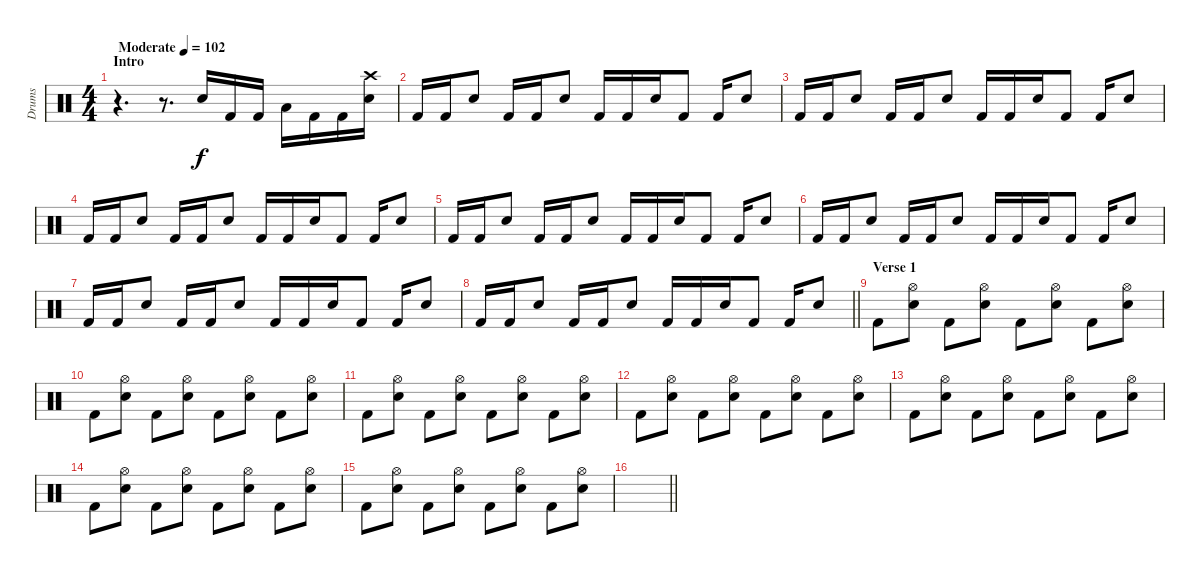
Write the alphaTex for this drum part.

\track ("Drums" "Drums") {instrument percussion}
\staff {score}
\articulation defaults
\ts (4 4)
\section ("" "Intro")
\tempo (102 "Moderate")
\clef neutral
\ks c
r.4{d dy f} r.8{d} "Electric Snare (hit)".16 "Kick (hit) 2".16 "Kick (hit) 2".16 "Low Tom (hit)".16 "Kick (hit) 2".16 "Kick (hit) 2".16 ("Crash high (hit)" "Electric Snare (hit)").16 |
"Kick (hit) 2".16 "Kick (hit) 2".16 "Electric Snare (hit)".8 "Kick (hit) 2".16 "Kick (hit) 2".16 "Electric Snare (hit)".8 "Kick (hit) 2".16 "Kick (hit) 2".16 "Electric Snare (hit)".16 "Kick (hit) 2".8 "Kick (hit) 2".16 "Electric Snare (hit)".8 |
"Kick (hit) 2".16 "Kick (hit) 2".16 "Electric Snare (hit)".8 "Kick (hit) 2".16 "Kick (hit) 2".16 "Electric Snare (hit)".8 "Kick (hit) 2".16 "Kick (hit) 2".16 "Electric Snare (hit)".16 "Kick (hit) 2".8 "Kick (hit) 2".16 "Electric Snare (hit)".8 |
"Kick (hit) 2".16 "Kick (hit) 2".16 "Electric Snare (hit)".8 "Kick (hit) 2".16 "Kick (hit) 2".16 "Electric Snare (hit)".8 "Kick (hit) 2".16 "Kick (hit) 2".16 "Electric Snare (hit)".16 "Kick (hit) 2".8 "Kick (hit) 2".16 "Electric Snare (hit)".8 |
"Kick (hit) 2".16 "Kick (hit) 2".16 "Electric Snare (hit)".8 "Kick (hit) 2".16 "Kick (hit) 2".16 "Electric Snare (hit)".8 "Kick (hit) 2".16 "Kick (hit) 2".16 "Electric Snare (hit)".16 "Kick (hit) 2".8 "Kick (hit) 2".16 "Electric Snare (hit)".8 |
"Kick (hit) 2".16 "Kick (hit) 2".16 "Electric Snare (hit)".8 "Kick (hit) 2".16 "Kick (hit) 2".16 "Electric Snare (hit)".8 "Kick (hit) 2".16 "Kick (hit) 2".16 "Electric Snare (hit)".16 "Kick (hit) 2".8 "Kick (hit) 2".16 "Electric Snare (hit)".8 |
"Kick (hit) 2".16 "Kick (hit) 2".16 "Electric Snare (hit)".8 "Kick (hit) 2".16 "Kick (hit) 2".16 "Electric Snare (hit)".8 "Kick (hit) 2".16 "Kick (hit) 2".16 "Electric Snare (hit)".16 "Kick (hit) 2".8 "Kick (hit) 2".16 "Electric Snare (hit)".8 |
\barLineRight lightlight "Kick (hit) 2".16 "Kick (hit) 2".16 "Electric Snare (hit)".8 "Kick (hit) 2".16 "Kick (hit) 2".16 "Electric Snare (hit)".8 "Kick (hit) 2".16 "Kick (hit) 2".16 "Electric Snare (hit)".16 "Kick (hit) 2".8 "Kick (hit) 2".16 "Electric Snare (hit)".8
|
\section ("" "Verse 1")
"Kick (hit) 2".8 ("Hi-Hat (open)" "Electric Snare (hit)").8 "Kick (hit) 2".8 ("Hi-Hat (open)" "Electric Snare (hit)").8 "Kick (hit) 2".8 ("Hi-Hat (open)" "Electric Snare (hit)").8 "Kick (hit) 2".8 ("Hi-Hat (open)" "Electric Snare (hit)").8 |
"Kick (hit) 2".8 ("Hi-Hat (open)" "Electric Snare (hit)").8 "Kick (hit) 2".8 ("Hi-Hat (open)" "Electric Snare (hit)").8 "Kick (hit) 2".8 ("Hi-Hat (open)" "Electric Snare (hit)").8 "Kick (hit) 2".8 ("Hi-Hat (open)" "Electric Snare (hit)").8 |
"Kick (hit) 2".8 ("Hi-Hat (open)" "Electric Snare (hit)").8 "Kick (hit) 2".8 ("Hi-Hat (open)" "Electric Snare (hit)").8 "Kick (hit) 2".8 ("Hi-Hat (open)" "Electric Snare (hit)").8 "Kick (hit) 2".8 ("Hi-Hat (open)" "Electric Snare (hit)").8 |
"Kick (hit) 2".8 ("Hi-Hat (open)" "Electric Snare (hit)").8 "Kick (hit) 2".8 ("Hi-Hat (open)" "Electric Snare (hit)").8 "Kick (hit) 2".8 ("Hi-Hat (open)" "Electric Snare (hit)").8 "Kick (hit) 2".8 ("Hi-Hat (open)" "Electric Snare (hit)").8 |
"Kick (hit) 2".8 ("Hi-Hat (open)" "Electric Snare (hit)").8 "Kick (hit) 2".8 ("Hi-Hat (open)" "Electric Snare (hit)").8 "Kick (hit) 2".8 ("Hi-Hat (open)" "Electric Snare (hit)").8 "Kick (hit) 2".8 ("Hi-Hat (open)" "Electric Snare (hit)").8 |
"Kick (hit) 2".8 ("Hi-Hat (open)" "Electric Snare (hit)").8 "Kick (hit) 2".8 ("Hi-Hat (open)" "Electric Snare (hit)").8 "Kick (hit) 2".8 ("Hi-Hat (open)" "Electric Snare (hit)").8 "Kick (hit) 2".8 ("Hi-Hat (open)" "Electric Snare (hit)").8 |
"Kick (hit) 2".8 ("Hi-Hat (open)" "Electric Snare (hit)").8 "Kick (hit) 2".8 ("Hi-Hat (open)" "Electric Snare (hit)").8 "Kick (hit) 2".8 ("Hi-Hat (open)" "Electric Snare (hit)").8 "Kick (hit) 2".8 ("Hi-Hat (open)" "Electric Snare (hit)").8 |
\barLineRight lightlight
